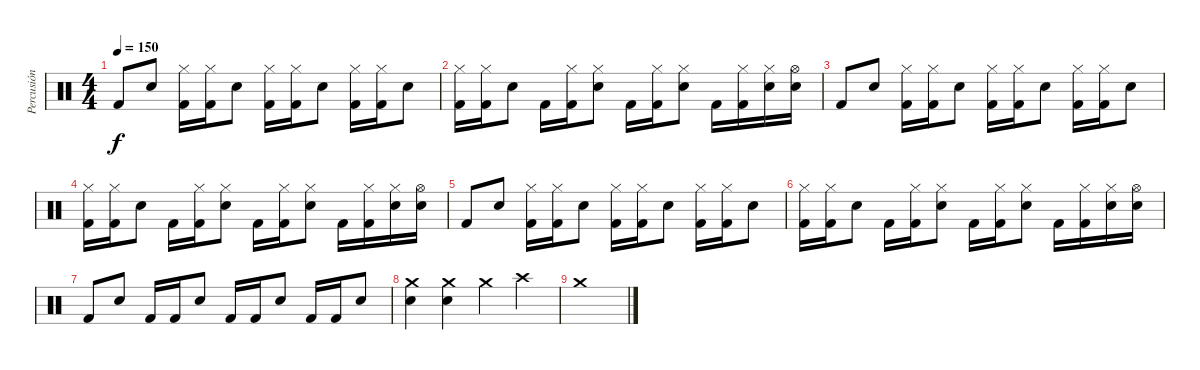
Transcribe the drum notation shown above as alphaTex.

\track ("Percusión" "Percusión") {instrument percussion}
\staff {score}
\articulation defaults
\ts (4 4)
\tempo 150
\clef neutral
\ks c "Kick (hit) 2".8{dy f} "Snare (hit) 2".8
("Hi-Hat (closed)" "Kick (hit) 2").16 ("Hi-Hat (closed)" "Kick (hit) 2").16 "Snare (hit) 2".8 ("Hi-Hat (closed)" "Kick (hit) 2").16 ("Hi-Hat (closed)" "Kick (hit) 2").16 "Snare (hit) 2".8 ("Hi-Hat (closed)" "Kick (hit) 2").16 ("Hi-Hat (closed)" "Kick (hit) 2").16 "Snare (hit) 2".8 |
("Hi-Hat (closed)" "Kick (hit) 2").16 ("Hi-Hat (closed)" "Kick (hit) 2").16 "Snare (hit) 2".8 "Kick (hit) 2".16 ("Hi-Hat (closed)" "Kick (hit) 2").16 ("Hi-Hat (closed)" "Snare (hit) 2").8 "Kick (hit) 2".16 ("Hi-Hat (closed)" "Kick (hit) 2").16 ("Hi-Hat (closed)" "Snare (hit) 2").8 "Kick (hit) 2".16 ("Hi-Hat (closed)" "Kick (hit) 2").16 ("Hi-Hat (closed)" "Snare (hit) 2").16 ("Hi-Hat (open)" "Snare (hit) 2").16 |
"Kick (hit) 2".8 "Snare (hit) 2".8 ("Hi-Hat (closed)" "Kick (hit) 2").16 ("Hi-Hat (closed)" "Kick (hit) 2").16 "Snare (hit) 2".8 ("Hi-Hat (closed)" "Kick (hit) 2").16 ("Hi-Hat (closed)" "Kick (hit) 2").16 "Snare (hit) 2".8 ("Hi-Hat (closed)" "Kick (hit) 2").16 ("Hi-Hat (closed)" "Kick (hit) 2").16 "Snare (hit) 2".8 |
("Hi-Hat (closed)" "Kick (hit) 2").16 ("Hi-Hat (closed)" "Kick (hit) 2").16 "Snare (hit) 2".8 "Kick (hit) 2".16 ("Hi-Hat (closed)" "Kick (hit) 2").16 ("Hi-Hat (closed)" "Snare (hit) 2").8 "Kick (hit) 2".16 ("Hi-Hat (closed)" "Kick (hit) 2").16 ("Hi-Hat (closed)" "Snare (hit) 2").8 "Kick (hit) 2".16 ("Hi-Hat (closed)" "Kick (hit) 2").16 ("Hi-Hat (closed)" "Snare (hit) 2").16 ("Hi-Hat (open)" "Snare (hit) 2").16 |
"Kick (hit) 2".8 "Snare (hit) 2".8 ("Hi-Hat (closed)" "Kick (hit) 2").16 ("Hi-Hat (closed)" "Kick (hit) 2").16 "Snare (hit) 2".8 ("Hi-Hat (closed)" "Kick (hit) 2").16 ("Hi-Hat (closed)" "Kick (hit) 2").16 "Snare (hit) 2".8 ("Hi-Hat (closed)" "Kick (hit) 2").16 ("Hi-Hat (closed)" "Kick (hit) 2").16 "Snare (hit) 2".8 |
("Hi-Hat (closed)" "Kick (hit) 2").16 ("Hi-Hat (closed)" "Kick (hit) 2").16 "Snare (hit) 2".8 "Kick (hit) 2".16 ("Hi-Hat (closed)" "Kick (hit) 2").16 ("Hi-Hat (closed)" "Snare (hit) 2").8 "Kick (hit) 2".16 ("Hi-Hat (closed)" "Kick (hit) 2").16 ("Hi-Hat (closed)" "Snare (hit) 2").8 "Kick (hit) 2".16 ("Hi-Hat (closed)" "Kick (hit) 2").16 ("Hi-Hat (closed)" "Snare (hit) 2").16 ("Hi-Hat (open)" "Snare (hit) 2").16 |
"Kick (hit) 2".8 "Snare (hit) 2".8 "Kick (hit) 2".16 "Kick (hit) 2".16 "Snare (hit) 2".8 "Kick (hit) 2".16 "Kick (hit) 2".16 "Snare (hit) 2".8 "Kick (hit) 2".16 "Kick (hit) 2".16 "Snare (hit) 2".8 |
("Crash medium (hit)" "Snare (hit) 2").4 ("Crash medium (hit)" "Snare (hit) 2").4 "Crash medium (hit)".4 "Crash high (hit)".4 |
"Crash medium (hit)".1
